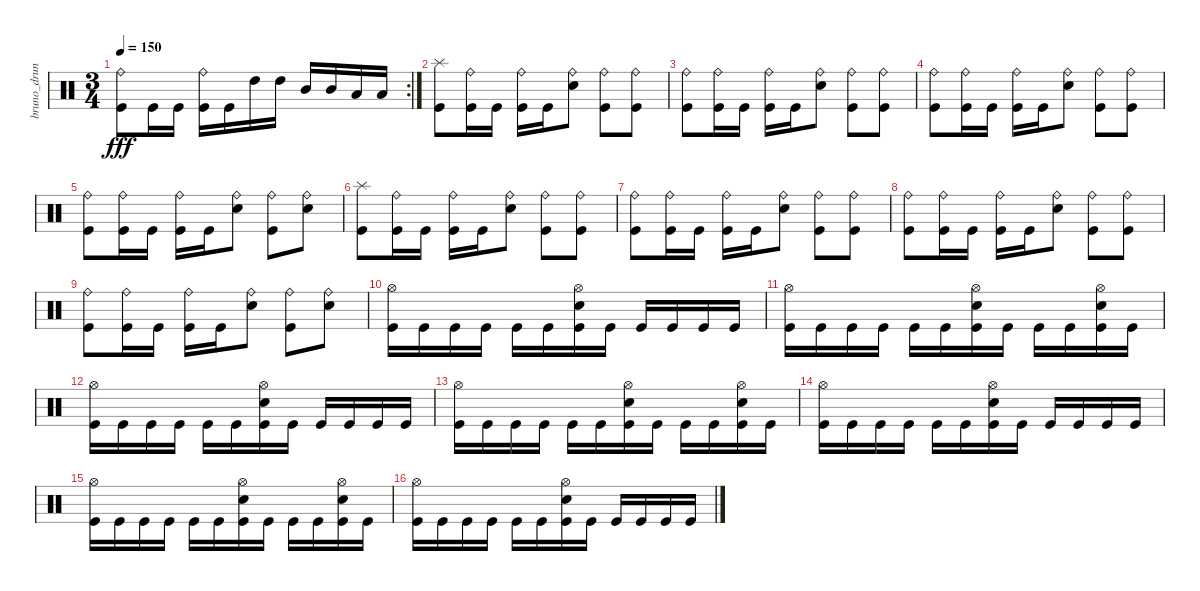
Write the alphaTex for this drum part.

\track ("bruno_druns" "bruno_drun") {instrument percussion}
\staff {score}
\articulation defaults
\rc 2
\ts (3 4)
\tempo 150
\clef neutral
\ks c
("Kick (hit)" "Ride (bell)").8{dy fff} "Kick (hit)".16 "Kick (hit)".16 ("Kick (hit)" "Ride (bell)").16 "Kick (hit)".16 "High Tom (hit)".16 "High Tom (hit)".16 "Mid Tom (hit)".16 "Mid Tom (hit)".16 "Low Tom (hit)".16 "Low Tom (hit)".16 |
("Kick (hit)" "Splash (hit)").8 ("Kick (hit)" "Ride (bell)").16 "Kick (hit)".16 ("Kick (hit)" "Ride (bell)").16 "Kick (hit)".16 ("Electric Snare (hit)" "Ride (bell)").8 ("Kick (hit)" "Ride (bell)").8 ("Kick (hit)" "Ride (bell)").8 |
("Kick (hit)" "Ride (bell)").8 ("Kick (hit)" "Ride (bell)").16 "Kick (hit)".16 ("Kick (hit)" "Ride (bell)").16 "Kick (hit)".16 ("Electric Snare (hit)" "Ride (bell)").8 ("Kick (hit)" "Ride (bell)").8 ("Kick (hit)" "Ride (bell)").8 |
("Kick (hit)" "Ride (bell)").8 ("Kick (hit)" "Ride (bell)").16 "Kick (hit)".16 ("Kick (hit)" "Ride (bell)").16 "Kick (hit)".16 ("Electric Snare (hit)" "Ride (bell)").8 ("Kick (hit)" "Ride (bell)").8 ("Kick (hit)" "Ride (bell)").8 |
("Kick (hit)" "Ride (bell)").8 ("Kick (hit)" "Ride (bell)").16 "Kick (hit)".16 ("Kick (hit)" "Ride (bell)").16 "Kick (hit)".16 ("Electric Snare (hit)" "Ride (bell)").8 ("Kick (hit)" "Ride (bell)").8 ("Electric Snare (hit)" "Ride (bell)").8 |
("Kick (hit)" "Splash (hit)").8 ("Kick (hit)" "Ride (bell)").16 "Kick (hit)".16 ("Kick (hit)" "Ride (bell)").16 "Kick (hit)".16 ("Electric Snare (hit)" "Ride (bell)").8 ("Kick (hit)" "Ride (bell)").8 ("Kick (hit)" "Ride (bell)").8 |
("Kick (hit)" "Ride (bell)").8 ("Kick (hit)" "Ride (bell)").16 "Kick (hit)".16 ("Kick (hit)" "Ride (bell)").16 "Kick (hit)".16 ("Electric Snare (hit)" "Ride (bell)").8 ("Kick (hit)" "Ride (bell)").8 ("Kick (hit)" "Ride (bell)").8 |
("Kick (hit)" "Ride (bell)").8 ("Kick (hit)" "Ride (bell)").16 "Kick (hit)".16 ("Kick (hit)" "Ride (bell)").16 "Kick (hit)".16 ("Electric Snare (hit)" "Ride (bell)").8 ("Kick (hit)" "Ride (bell)").8 ("Kick (hit)" "Ride (bell)").8 |
("Kick (hit)" "Ride (bell)").8 ("Kick (hit)" "Ride (bell)").16 "Kick (hit)".16 ("Kick (hit)" "Ride (bell)").16 "Kick (hit)".16 ("Electric Snare (hit)" "Ride (bell)").8 ("Kick (hit)" "Ride (bell)").8 ("Electric Snare (hit)" "Ride (bell)").8 |
("Kick (hit)" "Hi-Hat (open)").16 "Kick (hit)".16 "Kick (hit)".16 "Kick (hit)".16 "Kick (hit)".16 "Kick (hit)".16 ("Kick (hit)" "Electric Snare (hit)" "Hi-Hat (open)").16 "Kick (hit)".16 "Kick (hit)".16 "Kick (hit)".16 "Kick (hit)".16 "Kick (hit)".16 |
("Kick (hit)" "Hi-Hat (open)").16 "Kick (hit)".16 "Kick (hit)".16 "Kick (hit)".16 "Kick (hit)".16 "Kick (hit)".16 ("Kick (hit)" "Electric Snare (hit)" "Hi-Hat (open)").16 "Kick (hit)".16 "Kick (hit)".16 "Kick (hit)".16 ("Kick (hit)" "Electric Snare (hit)" "Hi-Hat (open)").16 "Kick (hit)".16 |
("Kick (hit)" "Hi-Hat (open)").16 "Kick (hit)".16 "Kick (hit)".16 "Kick (hit)".16 "Kick (hit)".16 "Kick (hit)".16 ("Kick (hit)" "Electric Snare (hit)" "Hi-Hat (open)").16 "Kick (hit)".16 "Kick (hit)".16 "Kick (hit)".16 "Kick (hit)".16 "Kick (hit)".16 |
("Kick (hit)" "Hi-Hat (open)").16 "Kick (hit)".16 "Kick (hit)".16 "Kick (hit)".16 "Kick (hit)".16 "Kick (hit)".16 ("Kick (hit)" "Electric Snare (hit)" "Hi-Hat (open)").16 "Kick (hit)".16 "Kick (hit)".16 "Kick (hit)".16 ("Kick (hit)" "Electric Snare (hit)" "Hi-Hat (open)").16 "Kick (hit)".16 |
("Kick (hit)" "Hi-Hat (open)").16 "Kick (hit)".16 "Kick (hit)".16 "Kick (hit)".16 "Kick (hit)".16 "Kick (hit)".16 ("Kick (hit)" "Electric Snare (hit)" "Hi-Hat (open)").16 "Kick (hit)".16 "Kick (hit)".16 "Kick (hit)".16 "Kick (hit)".16 "Kick (hit)".16 |
("Kick (hit)" "Hi-Hat (open)").16 "Kick (hit)".16 "Kick (hit)".16 "Kick (hit)".16 "Kick (hit)".16 "Kick (hit)".16 ("Kick (hit)" "Electric Snare (hit)" "Hi-Hat (open)").16 "Kick (hit)".16 "Kick (hit)".16 "Kick (hit)".16 ("Kick (hit)" "Electric Snare (hit)" "Hi-Hat (open)").16 "Kick (hit)".16 |
("Kick (hit)" "Hi-Hat (open)").16 "Kick (hit)".16 "Kick (hit)".16 "Kick (hit)".16 "Kick (hit)".16 "Kick (hit)".16 ("Kick (hit)" "Electric Snare (hit)" "Hi-Hat (open)").16 "Kick (hit)".16 "Kick (hit)".16 "Kick (hit)".16 "Kick (hit)".16 "Kick (hit)".16
